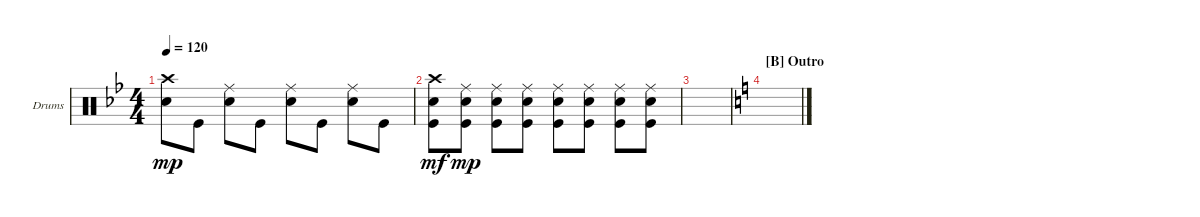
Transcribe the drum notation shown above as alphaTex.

\bracketExtendMode groupsimilarinstruments
\firstSystemTrackNameOrientation horizontal
\otherSystemsTrackNameOrientation horizontal
\track ("Drums Ghoul" "Drums") {instrument percussion}
\staff {score}
\articulation defaults
\ts (4 4)
\tempo 120
\clef neutral
\ks bb
("Snare (hit) 2" "Crash high (hit)").8{dy mp} "Kick (hit)".8 ("Snare (hit) 2" "Ride (middle)").8 "Kick (hit)".8 ("Snare (hit) 2" "Ride (middle)").8 "Kick (hit)".8 ("Snare (hit) 2" "Ride (middle)").8 "Kick (hit)".8 |
("Kick (hit)" "Crash high (hit)" "Snare (hit) 2").8{dy mf} ("Kick (hit)" "Snare (hit) 2" "Ride (middle)").8{dy mp} ("Kick (hit)" "Snare (hit) 2" "Ride (middle)").8 ("Kick (hit)" "Snare (hit) 2" "Ride (middle)").8 ("Kick (hit)" "Snare (hit) 2" "Ride (middle)").8 ("Kick (hit)" "Snare (hit) 2" "Ride (middle)").8 ("Kick (hit)" "Snare (hit) 2" "Ride (middle)").8 ("Kick (hit)" "Snare (hit) 2" "Ride (middle)").8 |
|
\section ("B" "Outro")
\ks c
